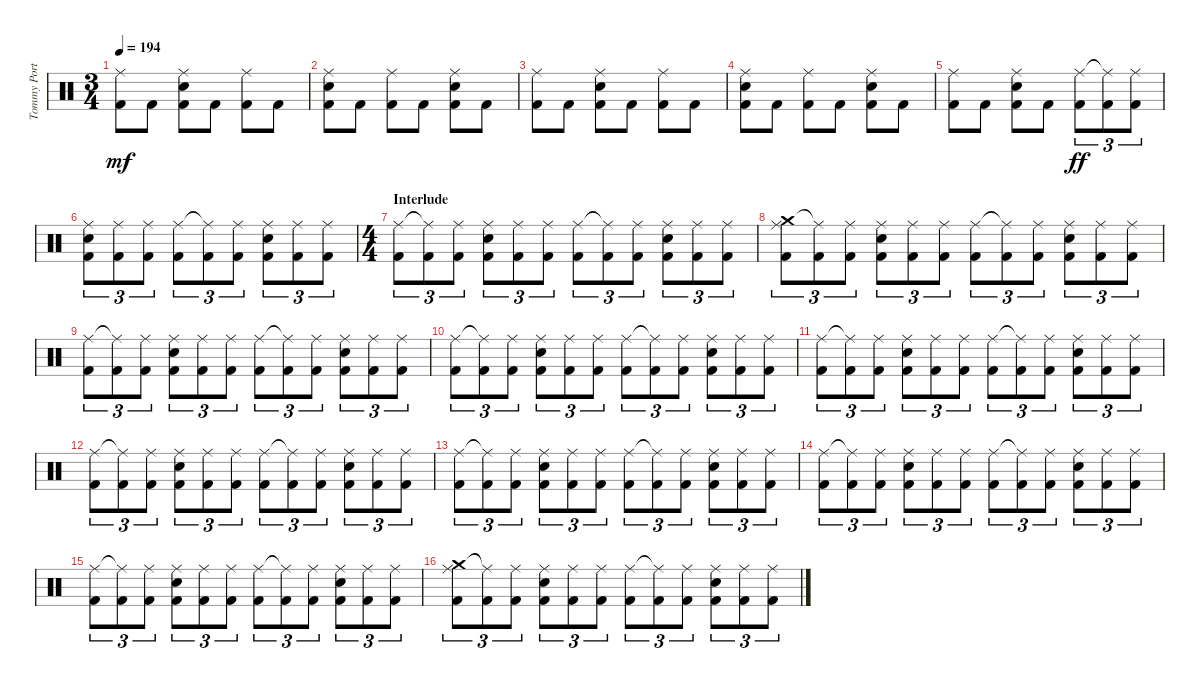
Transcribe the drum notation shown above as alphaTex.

\track ("Tommy Portino" "Tommy Port") {instrument percussion}
\staff {score}
\articulation defaults
\ts (3 4)
\tempo 194
\clef neutral
\ks c
("Ride (middle)" "Kick (hit) 2").8{dy mf} "Kick (hit) 2".8 ("Ride (middle)" "Snare (hit) 2" "Kick (hit) 2").8 "Kick (hit) 2".8 ("Ride (middle)" "Kick (hit) 2").8 "Kick (hit) 2".8 |
("Ride (middle)" "Snare (hit) 2" "Kick (hit) 2").8 "Kick (hit) 2".8 ("Ride (middle)" "Kick (hit) 2").8 "Kick (hit) 2".8 ("Ride (middle)" "Snare (hit) 2" "Kick (hit) 2").8 "Kick (hit) 2".8 |
("Ride (middle)" "Kick (hit) 2").8 "Kick (hit) 2".8 ("Ride (middle)" "Snare (hit) 2" "Kick (hit) 2").8 "Kick (hit) 2".8 ("Ride (middle)" "Kick (hit) 2").8 "Kick (hit) 2".8 |
("Ride (middle)" "Snare (hit) 2" "Kick (hit) 2").8 "Kick (hit) 2".8 ("Ride (middle)" "Kick (hit) 2").8 "Kick (hit) 2".8 ("Ride (middle)" "Snare (hit) 2" "Kick (hit) 2").8 "Kick (hit) 2".8 |
("Ride (middle)" "Kick (hit) 2").8 "Kick (hit) 2".8 ("Ride (middle)" "Snare (hit) 2" "Kick (hit) 2").8 "Kick (hit) 2".8 ("Ride (middle)" "Kick (hit) 2").8{tu (3 2) dy ff} ("Ride (middle)"{t} "Kick (hit) 2").8{tu (3 2)} ("Ride (middle)" "Kick (hit) 2").8{tu (3 2)} |
("Ride (middle)" "Snare (hit) 2" "Kick (hit) 2").8{tu (3 2)} ("Ride (middle)" "Kick (hit) 2").8{tu (3 2)} ("Ride (middle)" "Kick (hit) 2").8{tu (3 2)} ("Ride (middle)" "Kick (hit) 2").8{tu (3 2)} ("Ride (middle)"{t} "Kick (hit) 2").8{tu (3 2)} ("Ride (middle)" "Kick (hit) 2").8{tu (3 2)} ("Ride (middle)" "Snare (hit) 2" "Kick (hit) 2").8{tu (3 2)} ("Ride (middle)" "Kick (hit) 2").8{tu (3 2)} ("Ride (middle)" "Kick (hit) 2").8{tu (3 2)} |
\ts (4 4)
\section ("" "Interlude")
("Ride (middle)" "Kick (hit) 2").8{tu (3 2)} ("Ride (middle)"{t} "Kick (hit) 2").8{tu (3 2)} ("Ride (middle)" "Kick (hit) 2").8{tu (3 2)} ("Ride (middle)" "Snare (hit) 2" "Kick (hit) 2").8{tu (3 2)} ("Ride (middle)" "Kick (hit) 2").8{tu (3 2)} ("Ride (middle)" "Kick (hit) 2").8{tu (3 2)} ("Ride (middle)" "Kick (hit) 2").8{tu (3 2)} ("Ride (middle)"{t} "Kick (hit) 2").8{tu (3 2)} ("Ride (middle)" "Kick (hit) 2").8{tu (3 2)} ("Ride (middle)" "Snare (hit) 2" "Kick (hit) 2").8{tu (3 2)} ("Ride (middle)" "Kick (hit) 2").8{tu (3 2)} ("Ride (middle)" "Kick (hit) 2").8{tu (3 2)} |
("Crash medium (hit)" "Ride (middle)" "Kick (hit) 2").8{tu (3 2)} ("Ride (middle)"{t} "Kick (hit) 2").8{tu (3 2)} ("Ride (middle)" "Kick (hit) 2").8{tu (3 2)} ("Ride (middle)" "Snare (hit) 2" "Kick (hit) 2").8{tu (3 2)} ("Ride (middle)" "Kick (hit) 2").8{tu (3 2)} ("Ride (middle)" "Kick (hit) 2").8{tu (3 2)} ("Ride (middle)" "Kick (hit) 2").8{tu (3 2)} ("Ride (middle)"{t} "Kick (hit) 2").8{tu (3 2)} ("Ride (middle)" "Kick (hit) 2").8{tu (3 2)} ("Ride (middle)" "Snare (hit) 2" "Kick (hit) 2").8{tu (3 2)} ("Ride (middle)" "Kick (hit) 2").8{tu (3 2)} ("Ride (middle)" "Kick (hit) 2").8{tu (3 2)} |
("Ride (middle)" "Kick (hit) 2").8{tu (3 2)} ("Ride (middle)"{t} "Kick (hit) 2").8{tu (3 2)} ("Ride (middle)" "Kick (hit) 2").8{tu (3 2)} ("Ride (middle)" "Snare (hit) 2" "Kick (hit) 2").8{tu (3 2)} ("Ride (middle)" "Kick (hit) 2").8{tu (3 2)} ("Ride (middle)" "Kick (hit) 2").8{tu (3 2)} ("Ride (middle)" "Kick (hit) 2").8{tu (3 2)} ("Ride (middle)"{t} "Kick (hit) 2").8{tu (3 2)} ("Ride (middle)" "Kick (hit) 2").8{tu (3 2)} ("Ride (middle)" "Snare (hit) 2" "Kick (hit) 2").8{tu (3 2)} ("Ride (middle)" "Kick (hit) 2").8{tu (3 2)} ("Ride (middle)" "Kick (hit) 2").8{tu (3 2)} |
("Ride (middle)" "Kick (hit) 2").8{tu (3 2)} ("Ride (middle)"{t} "Kick (hit) 2").8{tu (3 2)} ("Ride (middle)" "Kick (hit) 2").8{tu (3 2)} ("Ride (middle)" "Snare (hit) 2" "Kick (hit) 2").8{tu (3 2)} ("Ride (middle)" "Kick (hit) 2").8{tu (3 2)} ("Ride (middle)" "Kick (hit) 2").8{tu (3 2)} ("Ride (middle)" "Kick (hit) 2").8{tu (3 2)} ("Ride (middle)"{t} "Kick (hit) 2").8{tu (3 2)} ("Ride (middle)" "Kick (hit) 2").8{tu (3 2)} ("Ride (middle)" "Snare (hit) 2" "Kick (hit) 2").8{tu (3 2)} ("Ride (middle)" "Kick (hit) 2").8{tu (3 2)} ("Ride (middle)" "Kick (hit) 2").8{tu (3 2)} |
("Ride (middle)" "Kick (hit) 2").8{tu (3 2)} ("Ride (middle)"{t} "Kick (hit) 2").8{tu (3 2)} ("Ride (middle)" "Kick (hit) 2").8{tu (3 2)} ("Ride (middle)" "Snare (hit) 2" "Kick (hit) 2").8{tu (3 2)} ("Ride (middle)" "Kick (hit) 2").8{tu (3 2)} ("Ride (middle)" "Kick (hit) 2").8{tu (3 2)} ("Ride (middle)" "Kick (hit) 2").8{tu (3 2)} ("Ride (middle)"{t} "Kick (hit) 2").8{tu (3 2)} ("Ride (middle)" "Kick (hit) 2").8{tu (3 2)} ("Ride (middle)" "Snare (hit) 2" "Kick (hit) 2").8{tu (3 2)} ("Ride (middle)" "Kick (hit) 2").8{tu (3 2)} ("Ride (middle)" "Kick (hit) 2").8{tu (3 2)} |
("Ride (middle)" "Kick (hit) 2").8{tu (3 2)} ("Ride (middle)"{t} "Kick (hit) 2").8{tu (3 2)} ("Ride (middle)" "Kick (hit) 2").8{tu (3 2)} ("Ride (middle)" "Snare (hit) 2" "Kick (hit) 2").8{tu (3 2)} ("Ride (middle)" "Kick (hit) 2").8{tu (3 2)} ("Ride (middle)" "Kick (hit) 2").8{tu (3 2)} ("Ride (middle)" "Kick (hit) 2").8{tu (3 2)} ("Ride (middle)"{t} "Kick (hit) 2").8{tu (3 2)} ("Ride (middle)" "Kick (hit) 2").8{tu (3 2)} ("Ride (middle)" "Snare (hit) 2" "Kick (hit) 2").8{tu (3 2)} ("Ride (middle)" "Kick (hit) 2").8{tu (3 2)} ("Ride (middle)" "Kick (hit) 2").8{tu (3 2)} |
("Ride (middle)" "Kick (hit) 2").8{tu (3 2)} ("Ride (middle)"{t} "Kick (hit) 2").8{tu (3 2)} ("Ride (middle)" "Kick (hit) 2").8{tu (3 2)} ("Ride (middle)" "Snare (hit) 2" "Kick (hit) 2").8{tu (3 2)} ("Ride (middle)" "Kick (hit) 2").8{tu (3 2)} ("Ride (middle)" "Kick (hit) 2").8{tu (3 2)} ("Ride (middle)" "Kick (hit) 2").8{tu (3 2)} ("Ride (middle)"{t} "Kick (hit) 2").8{tu (3 2)} ("Ride (middle)" "Kick (hit) 2").8{tu (3 2)} ("Ride (middle)" "Snare (hit) 2" "Kick (hit) 2").8{tu (3 2)} ("Ride (middle)" "Kick (hit) 2").8{tu (3 2)} ("Ride (middle)" "Kick (hit) 2").8{tu (3 2)} |
("Ride (middle)" "Kick (hit) 2").8{tu (3 2)} ("Ride (middle)"{t} "Kick (hit) 2").8{tu (3 2)} ("Ride (middle)" "Kick (hit) 2").8{tu (3 2)} ("Ride (middle)" "Snare (hit) 2" "Kick (hit) 2").8{tu (3 2)} ("Ride (middle)" "Kick (hit) 2").8{tu (3 2)} ("Ride (middle)" "Kick (hit) 2").8{tu (3 2)} ("Ride (middle)" "Kick (hit) 2").8{tu (3 2)} ("Ride (middle)"{t} "Kick (hit) 2").8{tu (3 2)} ("Ride (middle)" "Kick (hit) 2").8{tu (3 2)} ("Ride (middle)" "Snare (hit) 2" "Kick (hit) 2").8{tu (3 2)} ("Ride (middle)" "Kick (hit) 2").8{tu (3 2)} ("Ride (middle)" "Kick (hit) 2").8{tu (3 2)} |
("Ride (middle)" "Kick (hit) 2").8{tu (3 2)} ("Ride (middle)"{t} "Kick (hit) 2").8{tu (3 2)} ("Ride (middle)" "Kick (hit) 2").8{tu (3 2)} ("Ride (middle)" "Snare (hit) 2" "Kick (hit) 2").8{tu (3 2)} ("Ride (middle)" "Kick (hit) 2").8{tu (3 2)} ("Ride (middle)" "Kick (hit) 2").8{tu (3 2)} ("Ride (middle)" "Kick (hit) 2").8{tu (3 2)} ("Ride (middle)"{t} "Kick (hit) 2").8{tu (3 2)} ("Ride (middle)" "Kick (hit) 2").8{tu (3 2)} ("Ride (middle)" "Snare (hit) 2" "Kick (hit) 2").8{tu (3 2)} ("Ride (middle)" "Kick (hit) 2").8{tu (3 2)} ("Ride (middle)" "Kick (hit) 2").8{tu (3 2)} |
("Crash medium (hit)" "Ride (middle)" "Kick (hit) 2").8{tu (3 2)} ("Ride (middle)"{t} "Kick (hit) 2").8{tu (3 2)} ("Ride (middle)" "Kick (hit) 2").8{tu (3 2)} ("Ride (middle)" "Snare (hit) 2" "Kick (hit) 2").8{tu (3 2)} ("Ride (middle)" "Kick (hit) 2").8{tu (3 2)} ("Ride (middle)" "Kick (hit) 2").8{tu (3 2)} ("Ride (middle)" "Kick (hit) 2").8{tu (3 2)} ("Ride (middle)"{t} "Kick (hit) 2").8{tu (3 2)} ("Ride (middle)" "Kick (hit) 2").8{tu (3 2)} ("Ride (middle)" "Snare (hit) 2" "Kick (hit) 2").8{tu (3 2)} ("Ride (middle)" "Kick (hit) 2").8{tu (3 2)} ("Ride (middle)" "Kick (hit) 2").8{tu (3 2)}
